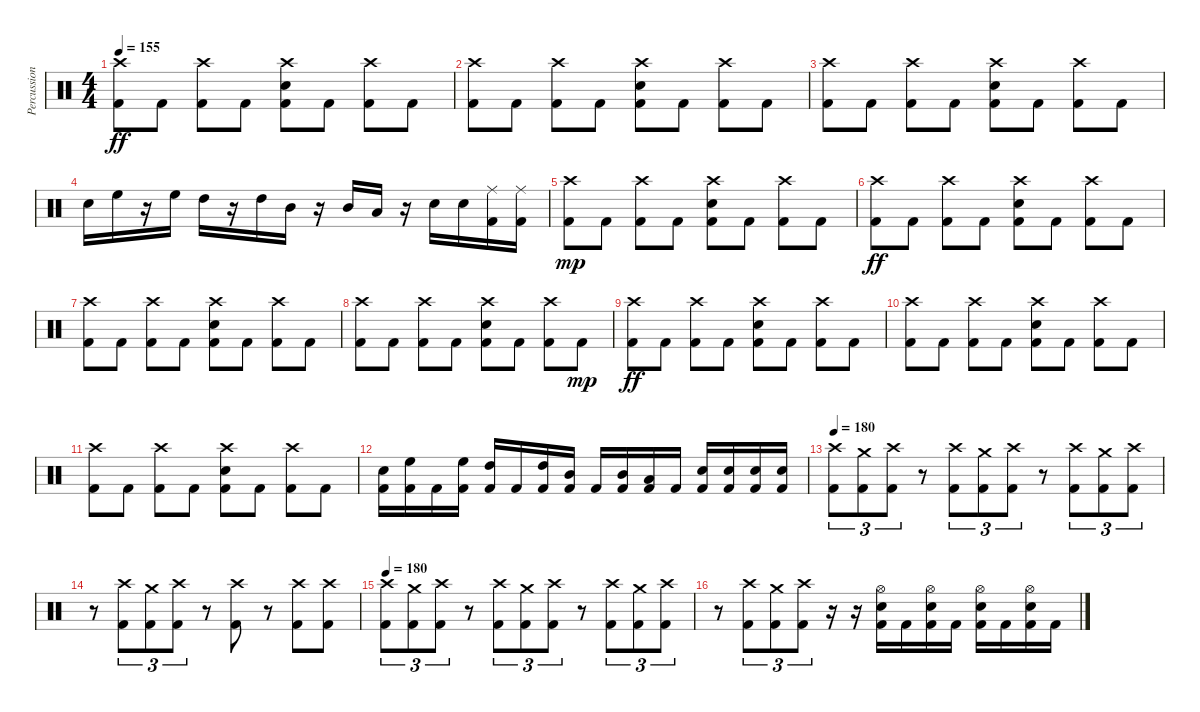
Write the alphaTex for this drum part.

\track ("Percussion" "Percussion") {instrument percussion}
\staff {score}
\articulation defaults
\ts (4 4)
\tempo 155
\clef neutral
\ks c
("Crash high (hit)" "Kick (hit) 2").8{dy ff} "Kick (hit) 2".8 ("Crash high (hit)" "Kick (hit) 2").8 "Kick (hit) 2".8 ("Crash high (hit)" "Electric Snare (hit)" "Kick (hit) 2").8 "Kick (hit) 2".8 ("Crash high (hit)" "Kick (hit) 2").8 "Kick (hit) 2".8 |
("Crash high (hit)" "Kick (hit) 2").8 "Kick (hit) 2".8 ("Crash high (hit)" "Kick (hit) 2").8 "Kick (hit) 2".8 ("Crash high (hit)" "Electric Snare (hit)" "Kick (hit) 2").8 "Kick (hit) 2".8 ("Crash high (hit)" "Kick (hit) 2").8 "Kick (hit) 2".8 |
("Crash high (hit)" "Kick (hit) 2").8 "Kick (hit) 2".8 ("Crash high (hit)" "Kick (hit) 2").8 "Kick (hit) 2".8 ("Crash high (hit)" "Electric Snare (hit)" "Kick (hit) 2").8 "Kick (hit) 2".8 ("Crash high (hit)" "Kick (hit) 2").8 "Kick (hit) 2".8 |
"Electric Snare (hit)".16 "High Floor Tom (hit)".16 r.16 "High Floor Tom (hit)".16 "High Tom (hit)".16 r.16 "High Tom (hit)".16 "Mid Tom (hit)".16 r.16 "Mid Tom (hit)".16 "Low Tom (hit)".16 r.16 "Electric Snare (hit)".16 "Electric Snare (hit)".16 ("Ride (middle)" "Kick (hit) 2").16 ("Ride (middle)" "Kick (hit) 2").16 |
("Crash high (hit)" "Kick (hit) 2").8{dy mp} "Kick (hit) 2".8 ("Crash high (hit)" "Kick (hit) 2").8 "Kick (hit) 2".8 ("Crash high (hit)" "Electric Snare (hit)" "Kick (hit) 2").8 "Kick (hit) 2".8 ("Crash high (hit)" "Kick (hit) 2").8 "Kick (hit) 2".8 |
("Crash high (hit)" "Kick (hit) 2").8{dy ff} "Kick (hit) 2".8 ("Crash high (hit)" "Kick (hit) 2").8 "Kick (hit) 2".8 ("Crash high (hit)" "Electric Snare (hit)" "Kick (hit) 2").8 "Kick (hit) 2".8 ("Crash high (hit)" "Kick (hit) 2").8 "Kick (hit) 2".8 |
("Crash high (hit)" "Kick (hit) 2").8 "Kick (hit) 2".8 ("Crash high (hit)" "Kick (hit) 2").8 "Kick (hit) 2".8 ("Crash high (hit)" "Electric Snare (hit)" "Kick (hit) 2").8 "Kick (hit) 2".8 ("Crash high (hit)" "Kick (hit) 2").8 "Kick (hit) 2".8 |
("Crash high (hit)" "Kick (hit) 2").8 "Kick (hit) 2".8 ("Crash high (hit)" "Kick (hit) 2").8 "Kick (hit) 2".8 ("Crash high (hit)" "Electric Snare (hit)" "Kick (hit) 2").8 "Kick (hit) 2".8 ("Crash high (hit)" "Kick (hit) 2").8 "Kick (hit) 2".8{dy mp} |
("Crash high (hit)" "Kick (hit) 2").8{dy ff} "Kick (hit) 2".8 ("Crash high (hit)" "Kick (hit) 2").8 "Kick (hit) 2".8 ("Crash high (hit)" "Electric Snare (hit)" "Kick (hit) 2").8 "Kick (hit) 2".8 ("Crash high (hit)" "Kick (hit) 2").8 "Kick (hit) 2".8 |
("Crash high (hit)" "Kick (hit) 2").8 "Kick (hit) 2".8 ("Crash high (hit)" "Kick (hit) 2").8 "Kick (hit) 2".8 ("Crash high (hit)" "Electric Snare (hit)" "Kick (hit) 2").8 "Kick (hit) 2".8 ("Crash high (hit)" "Kick (hit) 2").8 "Kick (hit) 2".8 |
("Crash high (hit)" "Kick (hit) 2").8 "Kick (hit) 2".8 ("Crash high (hit)" "Kick (hit) 2").8 "Kick (hit) 2".8 ("Crash high (hit)" "Electric Snare (hit)" "Kick (hit) 2").8 "Kick (hit) 2".8 ("Crash high (hit)" "Kick (hit) 2").8 "Kick (hit) 2".8 |
("Kick (hit) 2" "Electric Snare (hit)").16 ("Kick (hit) 2" "High Floor Tom (hit)").16 "Kick (hit) 2".16 ("Kick (hit) 2" "High Floor Tom (hit)").16 ("Kick (hit) 2" "High Tom (hit)").16 "Kick (hit) 2".16 ("Kick (hit) 2" "High Tom (hit)").16 ("Kick (hit) 2" "Mid Tom (hit)").16 "Kick (hit) 2".16 ("Kick (hit) 2" "Mid Tom (hit)").16 ("Kick (hit) 2" "Low Tom (hit)").16 "Kick (hit) 2".16 ("Kick (hit) 2" "Electric Snare (hit)").16 ("Kick (hit) 2" "Electric Snare (hit)").16 ("Kick (hit) 2" "Electric Snare (hit)").16 ("Kick (hit) 2" "Electric Snare (hit)").16 |
\tempo 180
("Crash high (hit)" "Kick (hit) 2").8{tu (3 2)} ("Crash medium (hit)" "Kick (hit) 2").8{tu (3 2)} ("Crash high (hit)" "Kick (hit) 2").8{tu (3 2)} r.8 ("Crash high (hit)" "Kick (hit) 2").8{tu (3 2)} ("Crash medium (hit)" "Kick (hit) 2").8{tu (3 2)} ("Crash high (hit)" "Kick (hit) 2").8{tu (3 2)} r.8 ("Crash high (hit)" "Kick (hit) 2").8{tu (3 2)} ("Crash medium (hit)" "Kick (hit) 2").8{tu (3 2)} ("Crash high (hit)" "Kick (hit) 2").8{tu (3 2)} |
r.8 ("Crash high (hit)" "Kick (hit) 2").8{tu (3 2)} ("Crash medium (hit)" "Kick (hit) 2").8{tu (3 2)} ("Crash high (hit)" "Kick (hit) 2").8{tu (3 2)} r.8 ("Crash high (hit)" "Kick (hit) 2").8 r.8 ("Crash high (hit)" "Kick (hit) 2").8 ("Crash high (hit)" "Kick (hit) 2").8 |
\tempo 180
("Crash high (hit)" "Kick (hit) 2").8{tu (3 2)} ("Crash medium (hit)" "Kick (hit) 2").8{tu (3 2)} ("Crash high (hit)" "Kick (hit) 2").8{tu (3 2)} r.8 ("Crash high (hit)" "Kick (hit) 2").8{tu (3 2)} ("Crash medium (hit)" "Kick (hit) 2").8{tu (3 2)} ("Crash high (hit)" "Kick (hit) 2").8{tu (3 2)} r.8 ("Crash high (hit)" "Kick (hit) 2").8{tu (3 2)} ("Crash medium (hit)" "Kick (hit) 2").8{tu (3 2)} ("Crash high (hit)" "Kick (hit) 2").8{tu (3 2)} |
r.8 ("Crash high (hit)" "Kick (hit) 2").8{tu (3 2)} ("Crash medium (hit)" "Kick (hit) 2").8{tu (3 2)} ("Crash high (hit)" "Kick (hit) 2").8{tu (3 2)} r.16 r.16 ("Hi-Hat (open)" "Electric Snare (hit)" "Kick (hit) 2").16 "Kick (hit) 2".16 ("Hi-Hat (open)" "Electric Snare (hit)" "Kick (hit) 2").16 "Kick (hit) 2".16 ("Hi-Hat (open)" "Electric Snare (hit)" "Kick (hit) 2").16 "Kick (hit) 2".16 ("Hi-Hat (open)" "Electric Snare (hit)" "Kick (hit) 2").16 "Kick (hit) 2".16
